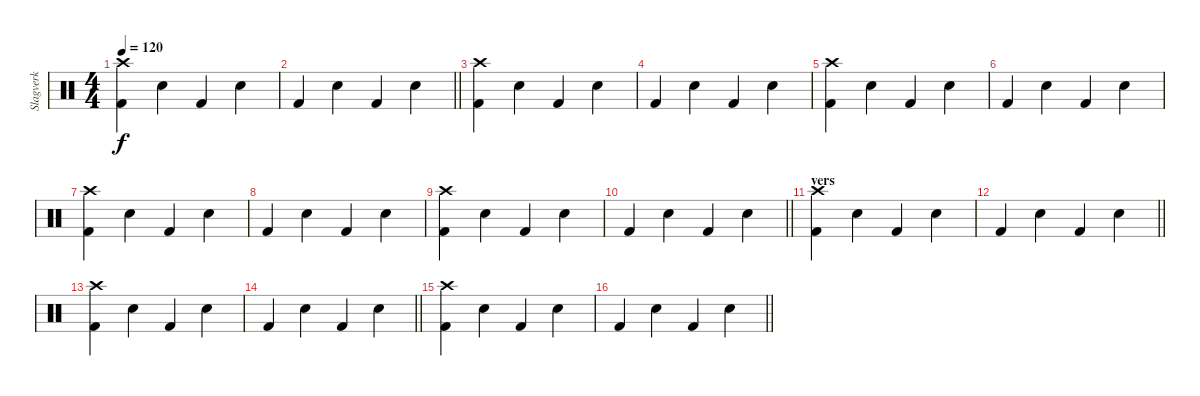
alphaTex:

\track ("Slagverk" "Slagverk") {instrument percussion}
\staff {score}
\articulation defaults
\ts (4 4)
\tempo 120
\clef neutral
\ks c
("Kick (hit) 2" "Crash high (hit)").4{dy f} "Snare (hit) 2".4 "Kick (hit) 2".4 "Snare (hit) 2".4 |
\barLineRight lightlight "Kick (hit) 2".4 "Snare (hit) 2".4 "Kick (hit) 2".4 "Snare (hit) 2".4
|
("Kick (hit) 2" "Crash high (hit)").4 "Snare (hit) 2".4 "Kick (hit) 2".4 "Snare (hit) 2".4 |
"Kick (hit) 2".4 "Snare (hit) 2".4 "Kick (hit) 2".4 "Snare (hit) 2".4 |
("Kick (hit) 2" "Crash high (hit)").4 "Snare (hit) 2".4 "Kick (hit) 2".4 "Snare (hit) 2".4 |
"Kick (hit) 2".4 "Snare (hit) 2".4 "Kick (hit) 2".4 "Snare (hit) 2".4 |
("Kick (hit) 2" "Crash high (hit)").4 "Snare (hit) 2".4 "Kick (hit) 2".4 "Snare (hit) 2".4 |
"Kick (hit) 2".4 "Snare (hit) 2".4 "Kick (hit) 2".4 "Snare (hit) 2".4 |
("Kick (hit) 2" "Crash high (hit)").4 "Snare (hit) 2".4 "Kick (hit) 2".4 "Snare (hit) 2".4 |
\barLineRight lightlight "Kick (hit) 2".4 "Snare (hit) 2".4 "Kick (hit) 2".4 "Snare (hit) 2".4
|
\section ("" "vers")
("Kick (hit) 2" "Crash high (hit)").4 "Snare (hit) 2".4 "Kick (hit) 2".4 "Snare (hit) 2".4 |
\barLineRight lightlight "Kick (hit) 2".4 "Snare (hit) 2".4 "Kick (hit) 2".4 "Snare (hit) 2".4
|
("Kick (hit) 2" "Crash high (hit)").4 "Snare (hit) 2".4 "Kick (hit) 2".4 "Snare (hit) 2".4 |
\barLineRight lightlight "Kick (hit) 2".4 "Snare (hit) 2".4 "Kick (hit) 2".4 "Snare (hit) 2".4
|
("Kick (hit) 2" "Crash high (hit)").4 "Snare (hit) 2".4 "Kick (hit) 2".4 "Snare (hit) 2".4 |
\barLineRight lightlight "Kick (hit) 2".4 "Snare (hit) 2".4 "Kick (hit) 2".4 "Snare (hit) 2".4
